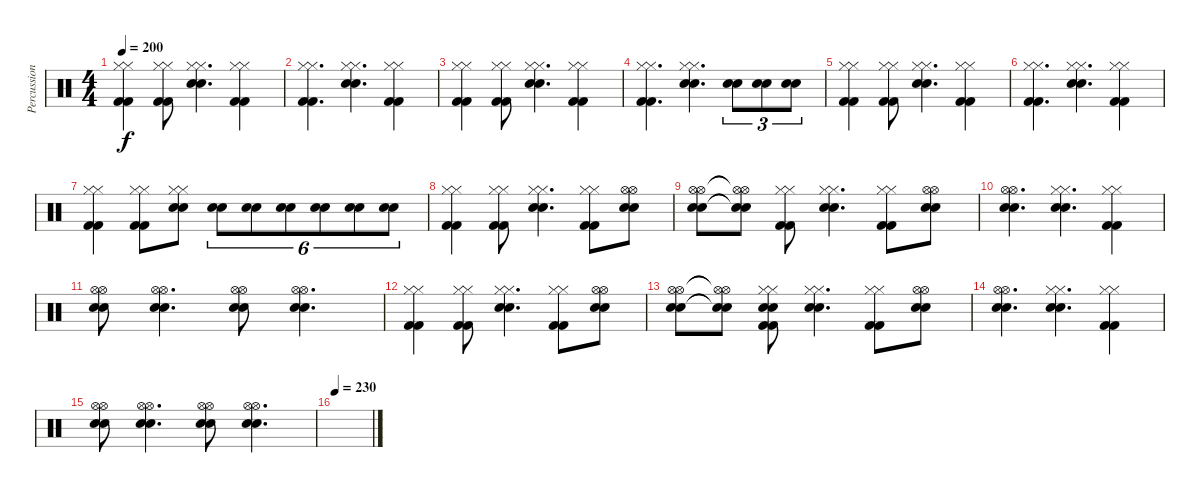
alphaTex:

\track ("Percussion" "Percussion") {instrument percussion}
\staff {score}
\articulation defaults
\ts (4 4)
\tempo 200
\clef neutral
\ks c
("Hi-Hat (closed)" "Hi-Hat (closed)" "Kick (hit) 2" "Kick (hit) 2").4{dy f} ("Hi-Hat (closed)" "Hi-Hat (closed)" "Kick (hit) 2" "Kick (hit) 2").8 ("Hi-Hat (closed)" "Hi-Hat (closed)" "Electric Snare (hit)" "Electric Snare (hit)").4{d} ("Hi-Hat (closed)" "Hi-Hat (closed)" "Kick (hit) 2" "Kick (hit) 2").4 |
("Hi-Hat (closed)" "Hi-Hat (closed)" "Kick (hit) 2" "Kick (hit) 2").4{d} ("Hi-Hat (closed)" "Hi-Hat (closed)" "Electric Snare (hit)" "Electric Snare (hit)").4{d} ("Hi-Hat (closed)" "Hi-Hat (closed)" "Kick (hit) 2" "Kick (hit) 2").4 |
("Hi-Hat (closed)" "Hi-Hat (closed)" "Kick (hit) 2" "Kick (hit) 2").4 ("Hi-Hat (closed)" "Hi-Hat (closed)" "Kick (hit) 2" "Kick (hit) 2").8 ("Hi-Hat (closed)" "Hi-Hat (closed)" "Electric Snare (hit)" "Electric Snare (hit)").4{d} ("Hi-Hat (closed)" "Hi-Hat (closed)" "Kick (hit) 2" "Kick (hit) 2").4 |
("Hi-Hat (closed)" "Hi-Hat (closed)" "Kick (hit) 2" "Kick (hit) 2").4{d} ("Hi-Hat (closed)" "Hi-Hat (closed)" "Electric Snare (hit)" "Electric Snare (hit)").4{d} ("Electric Snare (hit)" "Electric Snare (hit)").8{tu (3 2)} ("Electric Snare (hit)" "Electric Snare (hit)").8{tu (3 2)} ("Electric Snare (hit)" "Electric Snare (hit)").8{tu (3 2)} |
("Hi-Hat (closed)" "Hi-Hat (closed)" "Kick (hit) 2" "Kick (hit) 2").4 ("Hi-Hat (closed)" "Hi-Hat (closed)" "Kick (hit) 2" "Kick (hit) 2").8 ("Hi-Hat (closed)" "Hi-Hat (closed)" "Electric Snare (hit)" "Electric Snare (hit)").4{d} ("Hi-Hat (closed)" "Hi-Hat (closed)" "Kick (hit) 2" "Kick (hit) 2").4 |
("Hi-Hat (closed)" "Hi-Hat (closed)" "Kick (hit) 2" "Kick (hit) 2").4{d} ("Hi-Hat (closed)" "Hi-Hat (closed)" "Electric Snare (hit)" "Electric Snare (hit)").4{d} ("Hi-Hat (closed)" "Hi-Hat (closed)" "Kick (hit) 2" "Kick (hit) 2").4 |
("Hi-Hat (closed)" "Hi-Hat (closed)" "Kick (hit) 2" "Kick (hit) 2").4 ("Hi-Hat (closed)" "Hi-Hat (closed)" "Kick (hit) 2" "Kick (hit) 2").8 ("Hi-Hat (closed)" "Hi-Hat (closed)" "Electric Snare (hit)" "Electric Snare (hit)").8 ("Electric Snare (hit)" "Electric Snare (hit)").8{tu (6 4)} ("Electric Snare (hit)" "Electric Snare (hit)").8{tu (6 4)} ("Electric Snare (hit)" "Electric Snare (hit)").8{tu (6 4)} ("Electric Snare (hit)" "Electric Snare (hit)").8{tu (6 4)} ("Electric Snare (hit)" "Electric Snare (hit)").8{tu (6 4)} ("Electric Snare (hit)" "Electric Snare (hit)").8{tu (6 4)} |
("Hi-Hat (closed)" "Hi-Hat (closed)" "Kick (hit) 2" "Kick (hit) 2").4 ("Hi-Hat (closed)" "Hi-Hat (closed)" "Kick (hit) 2" "Kick (hit) 2").8 ("Hi-Hat (closed)" "Hi-Hat (closed)" "Electric Snare (hit)" "Electric Snare (hit)").4{d} ("Hi-Hat (closed)" "Hi-Hat (closed)" "Kick (hit) 2" "Kick (hit) 2").8 ("Hi-Hat (open)" "Hi-Hat (open)" "Electric Snare (hit)" "Electric Snare (hit)").8 |
("Hi-Hat (open)" "Hi-Hat (open)" "Electric Snare (hit)" "Electric Snare (hit)").8 ("Hi-Hat (open)"{t} "Hi-Hat (open)"{t} "Electric Snare (hit)"{t} "Electric Snare (hit)"{t}).8 ("Hi-Hat (closed)" "Hi-Hat (closed)" "Kick (hit) 2" "Kick (hit) 2").8 ("Hi-Hat (closed)" "Hi-Hat (closed)" "Electric Snare (hit)" "Electric Snare (hit)").4{d} ("Hi-Hat (closed)" "Hi-Hat (closed)" "Kick (hit) 2" "Kick (hit) 2").8 ("Hi-Hat (open)" "Hi-Hat (open)" "Electric Snare (hit)" "Electric Snare (hit)").8 |
("Hi-Hat (open)" "Hi-Hat (open)" "Electric Snare (hit)" "Electric Snare (hit)").4{d} ("Hi-Hat (closed)" "Hi-Hat (closed)" "Electric Snare (hit)" "Electric Snare (hit)").4{d} ("Hi-Hat (closed)" "Hi-Hat (closed)" "Kick (hit) 2" "Kick (hit) 2").4 |
("Hi-Hat (open)" "Hi-Hat (open)" "Electric Snare (hit)" "Electric Snare (hit)").8 ("Hi-Hat (open)" "Hi-Hat (open)" "Electric Snare (hit)" "Electric Snare (hit)").4{d} ("Hi-Hat (open)" "Hi-Hat (open)" "Electric Snare (hit)" "Electric Snare (hit)").8 ("Hi-Hat (open)" "Hi-Hat (open)" "Electric Snare (hit)" "Electric Snare (hit)").4{d} |
("Hi-Hat (closed)" "Hi-Hat (closed)" "Kick (hit) 2" "Kick (hit) 2").4 ("Hi-Hat (closed)" "Hi-Hat (closed)" "Kick (hit) 2" "Kick (hit) 2").8 ("Hi-Hat (closed)" "Hi-Hat (closed)" "Electric Snare (hit)" "Electric Snare (hit)").4{d} ("Hi-Hat (closed)" "Hi-Hat (closed)" "Kick (hit) 2" "Kick (hit) 2").8 ("Hi-Hat (open)" "Hi-Hat (open)" "Electric Snare (hit)" "Electric Snare (hit)").8 |
("Hi-Hat (open)" "Hi-Hat (open)" "Electric Snare (hit)" "Electric Snare (hit)").8 ("Hi-Hat (open)"{t} "Hi-Hat (open)"{t} "Electric Snare (hit)"{t} "Electric Snare (hit)"{t}).8 ("Hi-Hat (closed)" "Hi-Hat (closed)" "Electric Snare (hit)" "Electric Snare (hit)" "Kick (hit) 2" "Kick (hit) 2").8 ("Hi-Hat (closed)" "Hi-Hat (closed)" "Electric Snare (hit)" "Electric Snare (hit)").4{d} ("Hi-Hat (closed)" "Hi-Hat (closed)" "Kick (hit) 2" "Kick (hit) 2").8 ("Hi-Hat (open)" "Hi-Hat (open)" "Electric Snare (hit)" "Electric Snare (hit)").8 |
("Hi-Hat (open)" "Hi-Hat (open)" "Electric Snare (hit)" "Electric Snare (hit)").4{d} ("Hi-Hat (closed)" "Hi-Hat (closed)" "Electric Snare (hit)" "Electric Snare (hit)").4{d} ("Hi-Hat (closed)" "Hi-Hat (closed)" "Kick (hit) 2" "Kick (hit) 2").4 |
("Hi-Hat (open)" "Hi-Hat (open)" "Electric Snare (hit)" "Electric Snare (hit)").8 ("Hi-Hat (open)" "Hi-Hat (open)" "Electric Snare (hit)" "Electric Snare (hit)").4{d} ("Hi-Hat (open)" "Hi-Hat (open)" "Electric Snare (hit)" "Electric Snare (hit)").8 ("Hi-Hat (open)" "Hi-Hat (open)" "Electric Snare (hit)" "Electric Snare (hit)").4{d} |
\tempo 230
